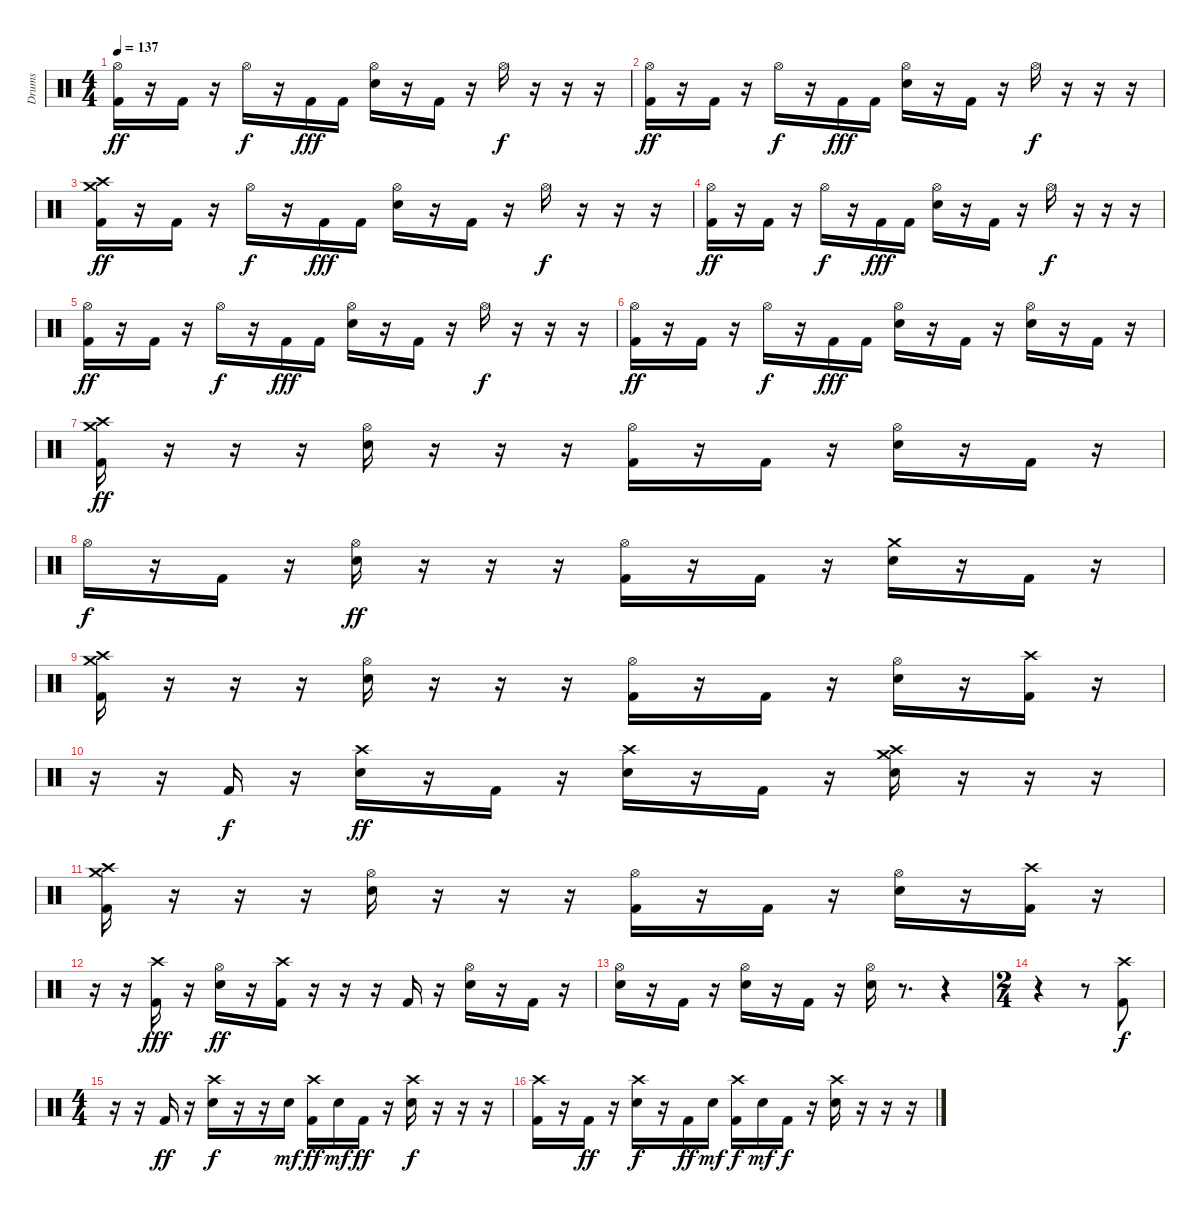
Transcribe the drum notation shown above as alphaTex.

\track ("Drums" "Drums") {instrument percussion}
\staff {score}
\articulation defaults
\ts (4 4)
\tempo 137
\clef neutral
\ks c
("Hi-Hat (open)" "Kick (hit) 2").16{dy ff} r.16 "Kick (hit) 2".16 r.16 "Hi-Hat (open)".16{dy f} r.16 "Kick (hit) 2".16{dy fff} "Kick (hit) 2".16 ("Hi-Hat (open)" "Electric Snare (hit)").16 r.16 "Kick (hit) 2".16 r.16 "Hi-Hat (open)".16{dy f} r.16 r.16 r.16 |
("Hi-Hat (open)" "Kick (hit) 2").16{dy ff} r.16 "Kick (hit) 2".16 r.16 "Hi-Hat (open)".16{dy f} r.16 "Kick (hit) 2".16{dy fff} "Kick (hit) 2".16 ("Hi-Hat (open)" "Electric Snare (hit)").16 r.16 "Kick (hit) 2".16 r.16 "Hi-Hat (open)".16{dy f} r.16 r.16 r.16 |
("Crash medium (hit)" "Crash high (hit)" "Kick (hit) 2").16{dy ff} r.16 "Kick (hit) 2".16 r.16 "Hi-Hat (open)".16{dy f} r.16 "Kick (hit) 2".16{dy fff} "Kick (hit) 2".16 ("Hi-Hat (open)" "Electric Snare (hit)").16 r.16 "Kick (hit) 2".16 r.16 "Hi-Hat (open)".16{dy f} r.16 r.16 r.16 |
("Hi-Hat (open)" "Kick (hit) 2").16{dy ff} r.16 "Kick (hit) 2".16 r.16 "Hi-Hat (open)".16{dy f} r.16 "Kick (hit) 2".16{dy fff} "Kick (hit) 2".16 ("Hi-Hat (open)" "Electric Snare (hit)").16 r.16 "Kick (hit) 2".16 r.16 "Hi-Hat (open)".16{dy f} r.16 r.16 r.16 |
("Hi-Hat (open)" "Kick (hit) 2").16{dy ff} r.16 "Kick (hit) 2".16 r.16 "Hi-Hat (open)".16{dy f} r.16 "Kick (hit) 2".16{dy fff} "Kick (hit) 2".16 ("Hi-Hat (open)" "Electric Snare (hit)").16 r.16 "Kick (hit) 2".16 r.16 "Hi-Hat (open)".16{dy f} r.16 r.16 r.16 |
("Hi-Hat (open)" "Kick (hit) 2").16{dy ff} r.16 "Kick (hit) 2".16 r.16 "Hi-Hat (open)".16{dy f} r.16 "Kick (hit) 2".16{dy fff} "Kick (hit) 2".16 ("Hi-Hat (open)" "Electric Snare (hit)").16 r.16 "Kick (hit) 2".16 r.16 ("Hi-Hat (open)" "Electric Snare (hit)").16 r.16 "Kick (hit) 2".16 r.16 |
("Crash medium (hit)" "Crash high (hit)" "Kick (hit) 2").16{dy ff} r.16 r.16 r.16 ("Hi-Hat (open)" "Electric Snare (hit)").16 r.16 r.16 r.16 ("Hi-Hat (open)" "Kick (hit) 2").16 r.16 "Kick (hit) 2".16 r.16 ("Hi-Hat (open)" "Electric Snare (hit)").16 r.16 "Kick (hit) 2".16 r.16 |
"Hi-Hat (open)".16{dy f} r.16 "Kick (hit) 2".16 r.16 ("Hi-Hat (open)" "Electric Snare (hit)").16{dy ff} r.16 r.16 r.16 ("Hi-Hat (open)" "Kick (hit) 2").16 r.16 "Kick (hit) 2".16 r.16 ("Crash medium (hit)" "Electric Snare (hit)").16 r.16 "Kick (hit) 2".16 r.16 |
("Crash medium (hit)" "Crash high (hit)" "Kick (hit) 2").16 r.16 r.16 r.16 ("Hi-Hat (open)" "Electric Snare (hit)").16 r.16 r.16 r.16 ("Hi-Hat (open)" "Kick (hit) 2").16 r.16 "Kick (hit) 2".16 r.16 ("Hi-Hat (open)" "Electric Snare (hit)").16 r.16 ("Crash high (hit)" "Kick (hit) 2").16 r.16 |
r.16 r.16 "Kick (hit) 2".16{dy f} r.16 ("Crash high (hit)" "Electric Snare (hit)").16{dy ff} r.16 "Kick (hit) 2".16 r.16 ("Crash high (hit)" "Electric Snare (hit)").16 r.16 "Kick (hit) 2".16 r.16 ("Crash high (hit)" "Crash medium (hit)" "Electric Snare (hit)").16 r.16 r.16 r.16 |
("Crash medium (hit)" "Crash high (hit)" "Kick (hit) 2").16 r.16 r.16 r.16 ("Hi-Hat (open)" "Electric Snare (hit)").16 r.16 r.16 r.16 ("Hi-Hat (open)" "Kick (hit) 2").16 r.16 "Kick (hit) 2".16 r.16 ("Hi-Hat (open)" "Electric Snare (hit)").16 r.16 ("Crash high (hit)" "Kick (hit) 2").16 r.16 |
r.16 r.16 ("Crash high (hit)" "Kick (hit) 2").16{dy fff} r.16 ("Hi-Hat (open)" "Electric Snare (hit)").16{dy ff} r.16 ("Crash high (hit)" "Kick (hit) 2").16 r.16 r.16 r.16 "Kick (hit) 2".16 r.16 ("Hi-Hat (open)" "Electric Snare (hit)").16 r.16 "Kick (hit) 2".16 r.16 |
("Hi-Hat (open)" "Electric Snare (hit)").16 r.16 "Kick (hit) 2".16 r.16 ("Hi-Hat (open)" "Electric Snare (hit)").16 r.16 "Kick (hit) 2".16 r.16 ("Hi-Hat (open)" "Electric Snare (hit)").16 r.8{d} r.4 |
\ts (2 4)
r.4 r.8 ("Crash high (hit)" "Kick (hit) 2").8{dy f} |
\ts (4 4)
r.16 r.16 "Kick (hit) 2".16{dy ff} r.16 ("Crash high (hit)" "Electric Snare (hit)").16{dy f} r.16 r.16 "Electric Snare (hit)".16{dy mf} ("Crash high (hit)" "Kick (hit) 2").16{dy ff} "Electric Snare (hit)".16{dy mf} "Kick (hit) 2".16{dy ff} r.16 ("Crash high (hit)" "Electric Snare (hit)").16{dy f} r.16 r.16 r.16 |
("Crash high (hit)" "Kick (hit) 2").16 r.16 "Kick (hit) 2".16{dy ff} r.16 ("Crash high (hit)" "Electric Snare (hit)").16{dy f} r.16 "Kick (hit) 2".16{dy ff} "Electric Snare (hit)".16{dy mf} ("Crash high (hit)" "Kick (hit) 2").16{dy f} "Electric Snare (hit)".16{dy mf} "Kick (hit) 2".16{dy f} r.16 ("Crash high (hit)" "Electric Snare (hit)").16 r.16 r.16 r.16
